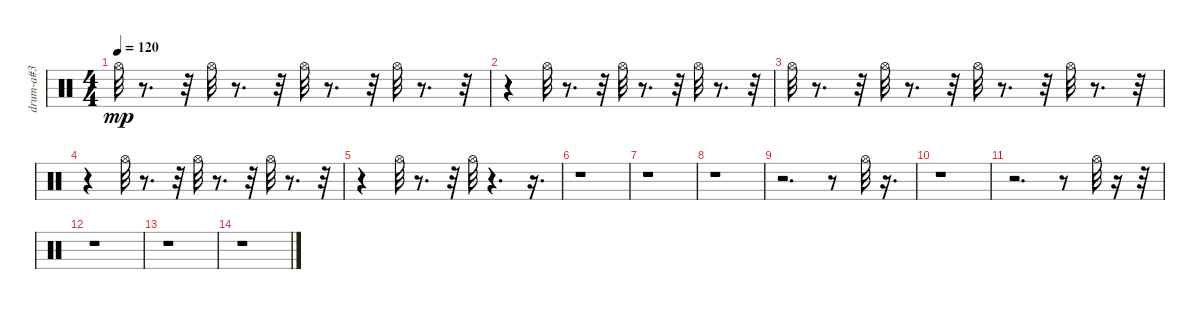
\track ("drum-a#3" "drum-a#3") {instrument percussion}
\staff {score}
\articulation defaults
\ts (4 4)
\tempo 120
\clef neutral
\ks c "Hi-Hat (open)".32{dy mp}
r.8{d} r.32 "Hi-Hat (open)".32 r.8{d} r.32 "Hi-Hat (open)".32 r.8{d} r.32 "Hi-Hat (open)".32 r.8{d} r.32 |
r.4 "Hi-Hat (open)".32 r.8{d} r.32 "Hi-Hat (open)".32 r.8{d} r.32 "Hi-Hat (open)".32 r.8{d} r.32 |
"Hi-Hat (open)".32 r.8{d} r.32 "Hi-Hat (open)".32 r.8{d} r.32 "Hi-Hat (open)".32 r.8{d} r.32 "Hi-Hat (open)".32 r.8{d} r.32 |
r.4 "Hi-Hat (open)".32 r.8{d} r.32 "Hi-Hat (open)".32 r.8{d} r.32 "Hi-Hat (open)".32 r.8{d} r.32 |
r.4 "Hi-Hat (open)".32 r.8{d} r.32 "Hi-Hat (open)".32 r.4{d} r.16{d} |
r.1 |
r.1 |
r.1 |
r.2{d} r.8 "Hi-Hat (open)".32 r.16{d} |
r.1 |
r.2{d} r.8 "Hi-Hat (open)".32 r.16 r.32 |
r.1 |
r.1 |
r.1
